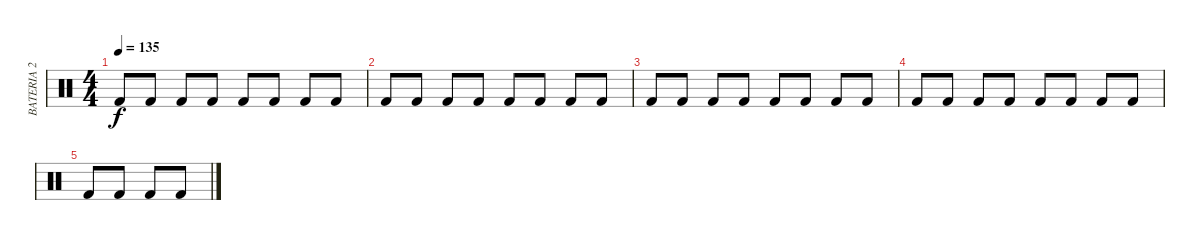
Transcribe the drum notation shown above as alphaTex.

\track ("BATERIA 2" "BATERIA 2") {instrument percussion}
\staff {score}
\articulation defaults
\ts (4 4)
\tempo 135
\clef neutral
\ks c "Kick (hit) 2".8{dy f} "Kick (hit) 2".8 "Kick (hit) 2".8 "Kick (hit) 2".8 "Kick (hit) 2".8 "Kick (hit) 2".8 "Kick (hit) 2".8 "Kick (hit) 2".8
|
"Kick (hit) 2".8 "Kick (hit) 2".8 "Kick (hit) 2".8 "Kick (hit) 2".8 "Kick (hit) 2".8 "Kick (hit) 2".8 "Kick (hit) 2".8 "Kick (hit) 2".8 |
"Kick (hit) 2".8 "Kick (hit) 2".8 "Kick (hit) 2".8 "Kick (hit) 2".8 "Kick (hit) 2".8 "Kick (hit) 2".8 "Kick (hit) 2".8 "Kick (hit) 2".8 |
"Kick (hit) 2".8 "Kick (hit) 2".8 "Kick (hit) 2".8 "Kick (hit) 2".8 "Kick (hit) 2".8 "Kick (hit) 2".8 "Kick (hit) 2".8 "Kick (hit) 2".8 |
"Kick (hit) 2".8 "Kick (hit) 2".8 "Kick (hit) 2".8 "Kick (hit) 2".8
